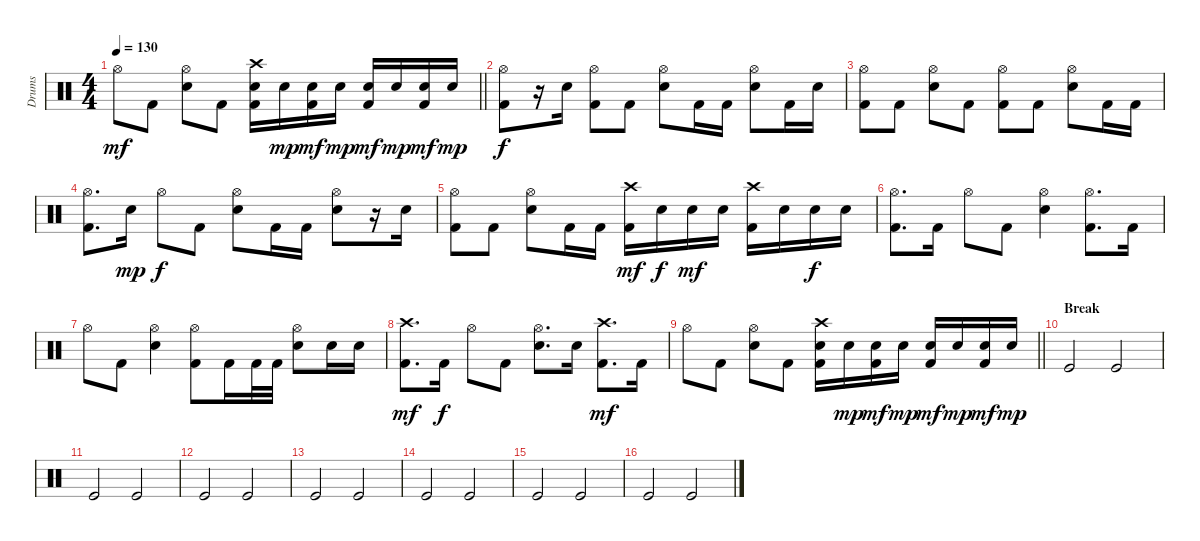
\track ("Drums" "Drums") {instrument percussion}
\staff {score}
\articulation defaults
\ts (4 4)
\tempo 130
\clef neutral
\barLineRight lightlight
\ks c "Hi-Hat (open)".8{dy mf} "Kick (hit) 2".8
("Hi-Hat (open)" "Snare (hit) 2").8 "Kick (hit) 2".8 ("Crash high (hit)" "Snare (hit) 2" "Kick (hit) 2").16 "Snare (hit) 2".16{dy mp} ("Snare (hit) 2" "Kick (hit) 2").16{dy mf} "Snare (hit) 2".16{dy mp} ("Snare (hit) 2" "Kick (hit) 2").16{dy mf} "Snare (hit) 2".16{dy mp} ("Snare (hit) 2" "Kick (hit) 2").16{dy mf} "Snare (hit) 2".16{dy mp} |
("Hi-Hat (open)" "Kick (hit) 2").8{dy f} r.16 "Snare (hit) 2".16 ("Hi-Hat (open)" "Kick (hit) 2").8 "Kick (hit) 2".8 ("Hi-Hat (open)" "Snare (hit) 2").8 "Kick (hit) 2".16 "Kick (hit) 2".16 ("Hi-Hat (open)" "Snare (hit) 2").8 "Kick (hit) 2".16 "Snare (hit) 2".16 |
("Hi-Hat (open)" "Kick (hit) 2").8 "Kick (hit) 2".8 ("Hi-Hat (open)" "Snare (hit) 2").8 "Kick (hit) 2".8 ("Hi-Hat (open)" "Kick (hit) 2").8 "Kick (hit) 2".8 ("Hi-Hat (open)" "Snare (hit) 2").8 "Kick (hit) 2".16 "Kick (hit) 2".16 |
("Hi-Hat (open)" "Kick (hit) 2").8{d} "Snare (hit) 2".16{dy mp} "Hi-Hat (open)".8{dy f} "Kick (hit) 2".8 ("Hi-Hat (open)" "Snare (hit) 2").8 "Kick (hit) 2".16 "Kick (hit) 2".16 ("Hi-Hat (open)" "Snare (hit) 2").8 r.16 "Snare (hit) 2".16 |
("Hi-Hat (open)" "Kick (hit) 2").8 "Kick (hit) 2".8 ("Hi-Hat (open)" "Snare (hit) 2").8 "Kick (hit) 2".16 "Kick (hit) 2".16 ("Crash high (hit)" "Kick (hit) 2").16{dy mf} "Snare (hit) 2".16{dy f} "Snare (hit) 2".16{dy mf} "Snare (hit) 2".16 ("Crash high (hit)" "Kick (hit) 2").16 "Snare (hit) 2".16 "Snare (hit) 2".16{dy f} "Snare (hit) 2".16 |
("Hi-Hat (open)" "Kick (hit) 2").8{d} "Kick (hit) 2".16 "Hi-Hat (open)".8 "Kick (hit) 2".8 ("Hi-Hat (open)" "Snare (hit) 2").4 ("Hi-Hat (open)" "Kick (hit) 2").8{d} "Kick (hit) 2".16 |
"Hi-Hat (open)".8 "Kick (hit) 2".8 ("Hi-Hat (open)" "Snare (hit) 2").4 ("Hi-Hat (open)" "Kick (hit) 2").8 "Kick (hit) 2".16 "Kick (hit) 2".32 "Kick (hit) 2".32 ("Hi-Hat (open)" "Snare (hit) 2").8 "Snare (hit) 2".16 "Snare (hit) 2".16 |
("Crash high (hit)" "Kick (hit) 2").8{d dy mf} "Kick (hit) 2".16{dy f} "Hi-Hat (open)".8 "Kick (hit) 2".8 ("Hi-Hat (open)" "Snare (hit) 2").8{d} "Snare (hit) 2".16 ("Crash high (hit)" "Kick (hit) 2").8{d dy mf} "Kick (hit) 2".16 |
\barLineRight lightlight "Hi-Hat (open)".8 "Kick (hit) 2".8
("Hi-Hat (open)" "Snare (hit) 2").8 "Kick (hit) 2".8 ("Crash high (hit)" "Snare (hit) 2" "Kick (hit) 2").16 "Snare (hit) 2".16{dy mp} ("Snare (hit) 2" "Kick (hit) 2").16{dy mf} "Snare (hit) 2".16{dy mp} ("Snare (hit) 2" "Kick (hit) 2").16{dy mf} "Snare (hit) 2".16{dy mp} ("Snare (hit) 2" "Kick (hit) 2").16{dy mf} "Snare (hit) 2".16{dy mp} |
\section ("" "Break")
"Kick (hit)".2 "Kick (hit)".2 |
"Kick (hit)".2 "Kick (hit)".2 |
"Kick (hit)".2 "Kick (hit)".2 |
"Kick (hit)".2 "Kick (hit)".2 |
"Kick (hit)".2 "Kick (hit)".2 |
"Kick (hit)".2 "Kick (hit)".2 |
"Kick (hit)".2 "Kick (hit)".2
